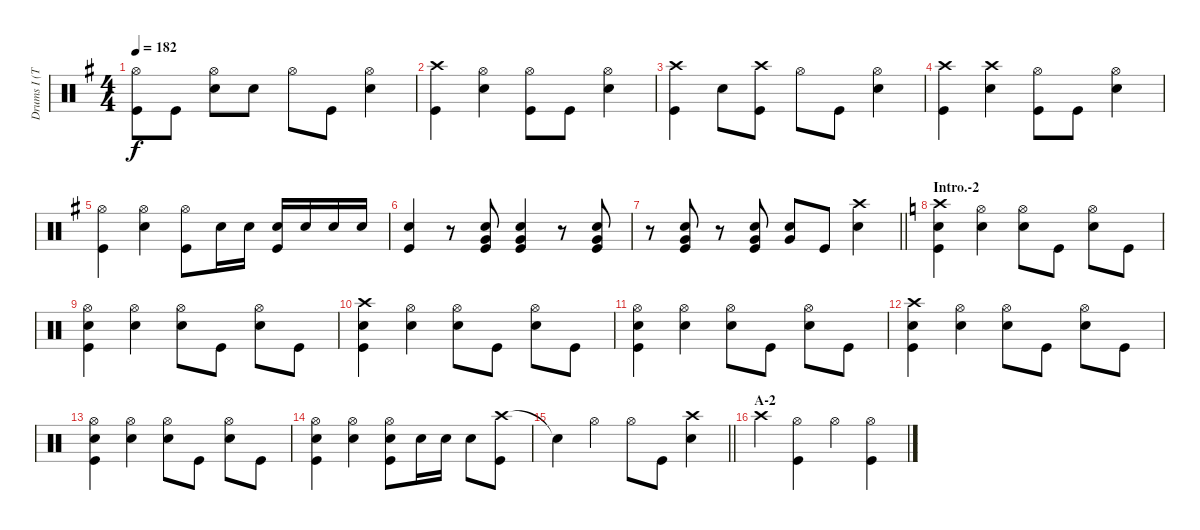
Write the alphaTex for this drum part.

\track ("Drums I (Tainaka Ritsu)" "Drums I (T") {instrument percussion}
\staff {score}
\articulation defaults
\ts (4 4)
\tempo 182
\clef neutral
\ks g
("Hi-Hat (open)" "Kick (hit)").8{dy f} "Kick (hit)".8 ("Hi-Hat (open)" "Snare (hit) 2").8 "Snare (hit) 2".8 "Hi-Hat (open)".8 "Kick (hit)".8 ("Hi-Hat (open)" "Snare (hit) 2").4 |
("Crash high (hit)" "Kick (hit)").4 ("Hi-Hat (open)" "Snare (hit) 2").4 ("Hi-Hat (open)" "Kick (hit)").8 "Kick (hit)".8 ("Hi-Hat (open)" "Snare (hit) 2").4 |
("Crash high (hit)" "Kick (hit)").4 "Snare (hit) 2".8 ("Crash high (hit)" "Kick (hit)").8 "Hi-Hat (open)".8 "Kick (hit)".8 ("Hi-Hat (open)" "Snare (hit) 2").4 |
("Crash high (hit)" "Kick (hit)").4 ("Crash high (hit)" "Snare (hit) 2").4 ("Hi-Hat (open)" "Kick (hit)").8 "Kick (hit)".8 ("Hi-Hat (open)" "Snare (hit) 2").4 |
("Hi-Hat (open)" "Kick (hit)").4 ("Hi-Hat (open)" "Snare (hit) 2").4 ("Hi-Hat (open)" "Kick (hit)").8 "Snare (hit) 2".16 "Snare (hit) 2".16 ("Snare (hit) 2" "Kick (hit)").16 "Snare (hit) 2".16 "Snare (hit) 2".16 "Snare (hit) 2".16 |
("Snare (hit) 2" "Kick (hit)").4 r.8 ("Snare (hit) 2" "Very Low Tom (hit)" "Kick (hit)").8 ("Snare (hit) 2" "Very Low Tom (hit)" "Kick (hit)").4 r.8 ("Snare (hit) 2" "Very Low Tom (hit)" "Kick (hit)").8 |
\barLineRight lightlight
r.8 ("Snare (hit) 2" "Very Low Tom (hit)" "Kick (hit)").8 r.8 ("Snare (hit) 2" "Very Low Tom (hit)" "Kick (hit)").8 ("Snare (hit) 2" "Very Low Tom (hit)").8 "Kick (hit)".8 ("Crash high (hit)" "Snare (hit) 2").4 |
\section ("" "Intro.-2")
\ks c
("Crash high (hit)" "Snare (hit) 2" "Kick (hit)").4 ("Hi-Hat (open)" "Snare (hit) 2").4 ("Hi-Hat (open)" "Snare (hit) 2").8 "Kick (hit)".8 ("Hi-Hat (open)" "Snare (hit) 2").8 "Kick (hit)".8 |
("Hi-Hat (open)" "Snare (hit) 2" "Kick (hit)").4 ("Hi-Hat (open)" "Snare (hit) 2").4 ("Hi-Hat (open)" "Snare (hit) 2").8 "Kick (hit)".8 ("Hi-Hat (open)" "Snare (hit) 2").8 "Kick (hit)".8 |
("Crash high (hit)" "Snare (hit) 2" "Kick (hit)").4 ("Hi-Hat (open)" "Snare (hit) 2").4 ("Hi-Hat (open)" "Snare (hit) 2").8 "Kick (hit)".8 ("Hi-Hat (open)" "Snare (hit) 2").8 "Kick (hit)".8 |
("Hi-Hat (open)" "Snare (hit) 2" "Kick (hit)").4 ("Hi-Hat (open)" "Snare (hit) 2").4 ("Hi-Hat (open)" "Snare (hit) 2").8 "Kick (hit)".8 ("Hi-Hat (open)" "Snare (hit) 2").8 "Kick (hit)".8 |
("Crash high (hit)" "Snare (hit) 2" "Kick (hit)").4 ("Hi-Hat (open)" "Snare (hit) 2").4 ("Hi-Hat (open)" "Snare (hit) 2").8 "Kick (hit)".8 ("Hi-Hat (open)" "Snare (hit) 2").8 "Kick (hit)".8 |
("Hi-Hat (open)" "Snare (hit) 2" "Kick (hit)").4 ("Hi-Hat (open)" "Snare (hit) 2").4 ("Hi-Hat (open)" "Snare (hit) 2").8 "Kick (hit)".8 ("Hi-Hat (open)" "Snare (hit) 2").8 "Kick (hit)".8 |
("Hi-Hat (open)" "Snare (hit) 2" "Kick (hit)").4 ("Hi-Hat (open)" "Snare (hit) 2").4 ("Hi-Hat (open)" "Snare (hit) 2" "Kick (hit)").8 "Snare (hit) 2".16 "Snare (hit) 2".16 "Snare (hit) 2".8 ("Crash high (hit)" "Kick (hit)").8 |
\barLineRight lightlight "Snare (hit)"{t}.4 "Hi-Hat (open)".4 "Hi-Hat (open)".8 "Kick (hit)".8
("Crash high (hit)" "Snare (hit) 2").4 |
\section ("" "A-2")
"Crash high (hit)".4 ("Hi-Hat (open)" "Kick (hit)").4 "Hi-Hat (open)".4 ("Hi-Hat (open)" "Kick (hit)").4
